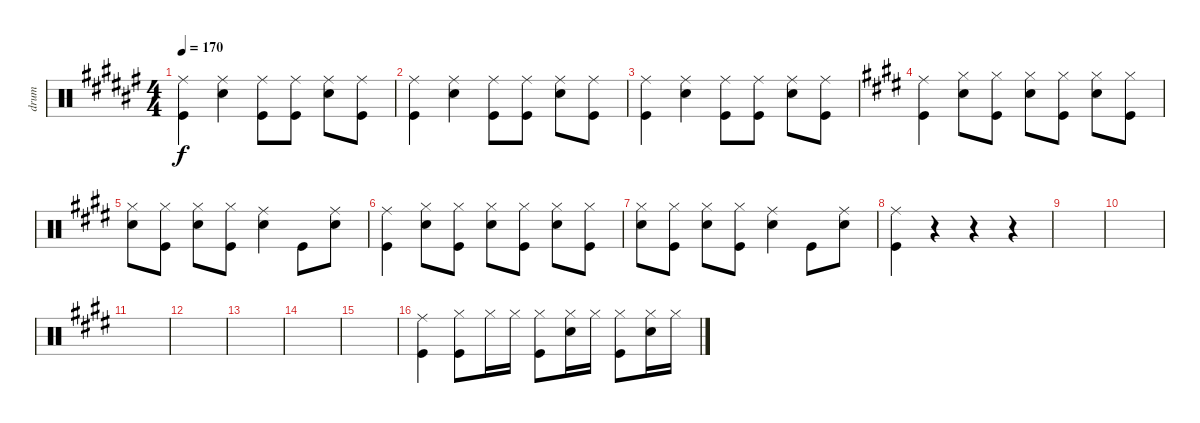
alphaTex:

\track ("drum" "drum") {instrument percussion}
\staff {score}
\articulation defaults
\ts (4 4)
\tempo 170
\clef neutral
\ks f#
("Ride (middle)" "Kick (hit)").4{dy f} ("Ride (middle)" "Snare (hit) 2").4 ("Kick (hit)" "Ride (middle)").8 ("Kick (hit)" "Ride (middle)").8 ("Snare (hit) 2" "Ride (middle)").8 ("Kick (hit)" "Ride (middle)").8 |
("Ride (middle)" "Kick (hit)").4 ("Ride (middle)" "Snare (hit) 2").4 ("Kick (hit)" "Ride (middle)").8 ("Kick (hit)" "Ride (middle)").8 ("Snare (hit) 2" "Ride (middle)").8 ("Kick (hit)" "Ride (middle)").8 |
("Ride (middle)" "Kick (hit)").4 ("Ride (middle)" "Snare (hit) 2").4 ("Kick (hit)" "Ride (middle)").8 ("Kick (hit)" "Ride (middle)").8 ("Snare (hit) 2" "Ride (middle)").8 ("Kick (hit)" "Ride (middle)").8 |
\ks e
("Ride (middle)" "Kick (hit)").4 ("Hi-Hat (closed)" "Snare (hit) 2").8 ("Hi-Hat (closed)" "Kick (hit)").8 ("Snare (hit) 2" "Hi-Hat (closed)").8 ("Kick (hit)" "Hi-Hat (closed)").8 ("Snare (hit) 2" "Hi-Hat (closed)").8 ("Kick (hit)" "Hi-Hat (closed)").8 |
("Snare (hit) 2" "Hi-Hat (closed)").8 ("Kick (hit)" "Hi-Hat (closed)").8 ("Snare (hit) 2" "Hi-Hat (closed)").8 ("Kick (hit)" "Hi-Hat (closed)").8 ("Ride (middle)" "Snare (hit) 2").4 "Kick (hit)".8 ("Ride (middle)" "Snare (hit) 2").8 |
("Ride (middle)" "Kick (hit)").4 ("Hi-Hat (closed)" "Snare (hit) 2").8 ("Hi-Hat (closed)" "Kick (hit)").8 ("Snare (hit) 2" "Hi-Hat (closed)").8 ("Kick (hit)" "Hi-Hat (closed)").8 ("Snare (hit) 2" "Hi-Hat (closed)").8 ("Kick (hit)" "Hi-Hat (closed)").8 |
("Snare (hit) 2" "Hi-Hat (closed)").8 ("Kick (hit)" "Hi-Hat (closed)").8 ("Snare (hit) 2" "Hi-Hat (closed)").8 ("Kick (hit)" "Hi-Hat (closed)").8 ("Ride (middle)" "Snare (hit) 2").4 "Kick (hit)".8 ("Ride (middle)" "Snare (hit) 2").8 |
("Ride (middle)" "Kick (hit)").4 r.4 r.4 r.4 |
|
|
|
|
|
|
|
("Kick (hit)" "Ride (middle)").4 ("Hi-Hat (closed)" "Kick (hit)").8 "Hi-Hat (closed)".16 "Hi-Hat (closed)".16 ("Hi-Hat (closed)" "Kick (hit)").8 ("Snare (hit) 2" "Hi-Hat (closed)").16 "Hi-Hat (closed)".16 ("Hi-Hat (closed)" "Kick (hit)").8 ("Snare (hit) 2" "Hi-Hat (closed)").16 "Hi-Hat (closed)".16
